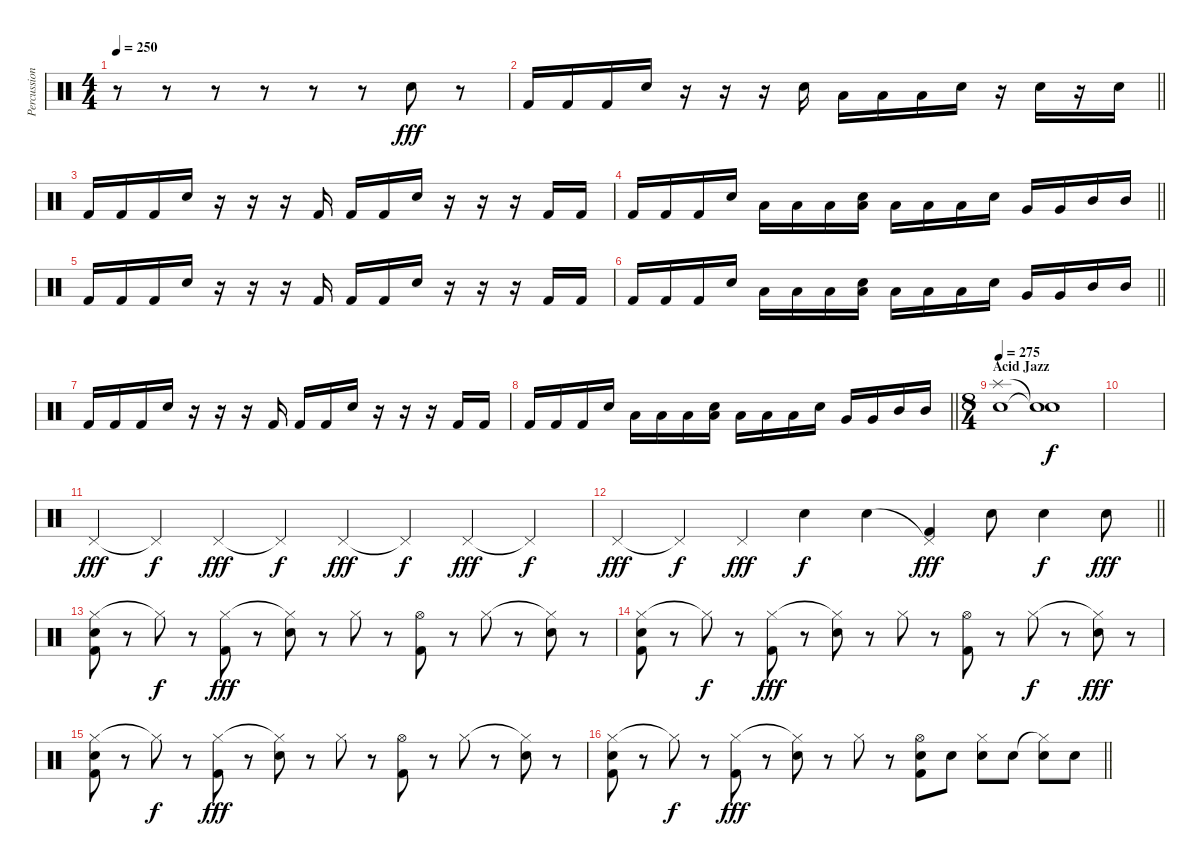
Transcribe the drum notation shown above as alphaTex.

\track ("Percussion" "Percussion") {instrument percussion}
\staff {score}
\articulation defaults
\ts (4 4)
\tempo 250
\clef neutral
\ks c
r.8{dy fff} r.8 r.8 r.8 r.8 r.8 "Electric Snare (hit)".8 r.8 |
\barLineRight lightlight "Kick (hit) 2".16 "Kick (hit) 2".16 "Kick (hit) 2".16 "Electric Snare (hit)".16
r.16 r.16 r.16 "Electric Snare (hit)".16 "Low Floor Tom (hit)".16 "Low Floor Tom (hit)".16 "Low Floor Tom (hit)".16 "Electric Snare (hit)".16 r.16 "Electric Snare (hit)".16 r.16 "Electric Snare (hit)".16 |
"Kick (hit) 2".16 "Kick (hit) 2".16 "Kick (hit) 2".16 "Electric Snare (hit)".16 r.16 r.16 r.16 "Kick (hit) 2".16 "Kick (hit) 2".16 "Kick (hit) 2".16 "Electric Snare (hit)".16 r.16 r.16 r.16 "Kick (hit) 2".16 "Kick (hit) 2".16 |
\barLineRight lightlight "Kick (hit) 2".16 "Kick (hit) 2".16 "Kick (hit) 2".16 "Electric Snare (hit)".16 "Low Floor Tom (hit)".16 "Low Floor Tom (hit)".16 "Low Floor Tom (hit)".16
("Low Floor Tom (hit)" "Electric Snare (hit)").16 "Low Floor Tom (hit)".16 "Low Floor Tom (hit)".16 "Low Floor Tom (hit)".16 "Electric Snare (hit)".16 "Very Low Tom (hit)".16 "Very Low Tom (hit)".16 "Mid Tom (hit)".16 "Mid Tom (hit)".16 |
"Kick (hit) 2".16 "Kick (hit) 2".16 "Kick (hit) 2".16 "Electric Snare (hit)".16 r.16 r.16 r.16 "Kick (hit) 2".16 "Kick (hit) 2".16 "Kick (hit) 2".16 "Electric Snare (hit)".16 r.16 r.16 r.16 "Kick (hit) 2".16 "Kick (hit) 2".16 |
\barLineRight lightlight "Kick (hit) 2".16 "Kick (hit) 2".16 "Kick (hit) 2".16 "Electric Snare (hit)".16 "Low Floor Tom (hit)".16 "Low Floor Tom (hit)".16 "Low Floor Tom (hit)".16
("Low Floor Tom (hit)" "Electric Snare (hit)").16 "Low Floor Tom (hit)".16 "Low Floor Tom (hit)".16 "Low Floor Tom (hit)".16 "Electric Snare (hit)".16 "Very Low Tom (hit)".16 "Very Low Tom (hit)".16 "Mid Tom (hit)".16 "Mid Tom (hit)".16 |
"Kick (hit) 2".16 "Kick (hit) 2".16 "Kick (hit) 2".16 "Electric Snare (hit)".16 r.16 r.16 r.16 "Kick (hit) 2".16 "Kick (hit) 2".16 "Kick (hit) 2".16 "Electric Snare (hit)".16 r.16 r.16 r.16 "Kick (hit) 2".16 "Kick (hit) 2".16 |
\barLineRight lightlight "Kick (hit) 2".16 "Kick (hit) 2".16 "Kick (hit) 2".16 "Electric Snare (hit)".16 "Low Floor Tom (hit)".16 "Low Floor Tom (hit)".16 "Low Floor Tom (hit)".16
("Low Floor Tom (hit)" "Electric Snare (hit)").16 "Low Floor Tom (hit)".16 "Low Floor Tom (hit)".16 "Low Floor Tom (hit)".16 "Electric Snare (hit)".16 "Very Low Tom (hit)".16 "Very Low Tom (hit)".16 "Mid Tom (hit)".16 "Mid Tom (hit)".16 |
\ts (8 4)
\section ("" "Acid Jazz")
\tempo 275
("Splash (hit)" "Electric Snare (hit)").1 ("Snare (hit)"{t} "Snare (hit)"{t}).1{dy f} |
|
"Pedal Hi-Hat (hit)".4{dy fff} "Pedal Hi-Hat (hit)"{t}.4{dy f} "Pedal Hi-Hat (hit)".4{dy fff} "Pedal Hi-Hat (hit)"{t}.4{dy f} "Pedal Hi-Hat (hit)".4{dy fff} "Pedal Hi-Hat (hit)"{t}.4{dy f} "Pedal Hi-Hat (hit)".4{dy fff} "Pedal Hi-Hat (hit)"{t}.4{dy f} |
\barLineRight lightlight "Pedal Hi-Hat (hit)".4{dy fff} "Pedal Hi-Hat (hit)"{t}.4{dy f} "Pedal Hi-Hat (hit)".4{dy fff} "Electric Snare (hit)".4{dy f} "Electric Snare (hit)".4
("Pedal Hi-Hat (hit)"{t} "Kick (hit) 2").4{dy fff} "Electric Snare (hit)".8 "Electric Snare (hit)".4{dy f} "Electric Snare (hit)".8{dy fff} |
("Hi-Hat (closed)" "Electric Snare (hit)" "Kick (hit) 2").8 r.8 "Hi-Hat (closed)"{t}.8{dy f} r.8 ("Hi-Hat (closed)" "Kick (hit) 2").8{dy fff} r.8 ("Hi-Hat (closed)"{t} "Electric Snare (hit)").8 r.8 "Hi-Hat (closed)".8 r.8 ("Hi-Hat (open)" "Kick (hit) 2").8 r.8 "Hi-Hat (closed)".8 r.8 ("Hi-Hat (closed)"{t} "Electric Snare (hit)").8 r.8 |
("Hi-Hat (closed)" "Electric Snare (hit)" "Kick (hit) 2").8 r.8 "Hi-Hat (closed)"{t}.8{dy f} r.8 ("Hi-Hat (closed)" "Kick (hit) 2").8{dy fff} r.8 ("Hi-Hat (closed)"{t} "Electric Snare (hit)").8 r.8 "Hi-Hat (closed)".8 r.8 ("Hi-Hat (open)" "Kick (hit) 2").8 r.8 "Hi-Hat (closed)".8{dy f} r.8 ("Hi-Hat (closed)"{t} "Electric Snare (hit)").8{dy fff} r.8 |
("Hi-Hat (closed)" "Electric Snare (hit)" "Kick (hit) 2").8 r.8 "Hi-Hat (closed)"{t}.8{dy f} r.8 ("Hi-Hat (closed)" "Kick (hit) 2").8{dy fff} r.8 ("Hi-Hat (closed)"{t} "Electric Snare (hit)").8 r.8 "Hi-Hat (closed)".8 r.8 ("Hi-Hat (open)" "Kick (hit) 2").8 r.8 "Hi-Hat (closed)".8 r.8 ("Hi-Hat (closed)"{t} "Electric Snare (hit)").8 r.8 |
\barLineRight lightlight
("Hi-Hat (closed)" "Electric Snare (hit)" "Kick (hit) 2").8 r.8 "Hi-Hat (closed)"{t}.8{dy f} r.8 ("Hi-Hat (closed)" "Kick (hit) 2").8{dy fff} r.8 ("Hi-Hat (closed)"{t} "Electric Snare (hit)").8 r.8 "Hi-Hat (closed)".8 r.8 ("Hi-Hat (open)" "Electric Snare (hit)" "Kick (hit) 2").8 "Electric Snare (hit)".8 ("Hi-Hat (closed)" "Electric Snare (hit)").8 "Electric Snare (hit)".8 ("Hi-Hat (closed)"{t} "Electric Snare (hit)").8 "Electric Snare (hit)".8
